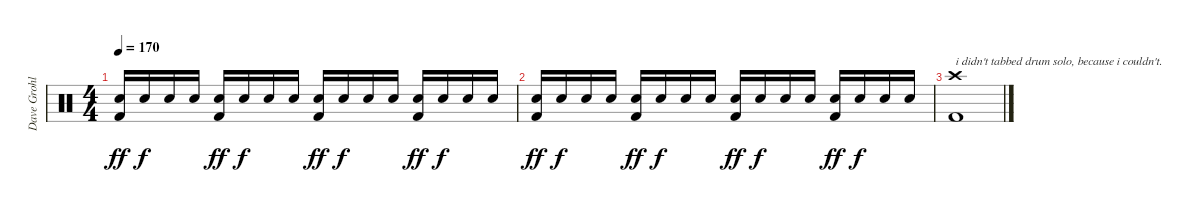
\track ("Dave Grohl" "Dave Grohl") {instrument percussion}
\staff {score}
\articulation defaults
\ts (4 4)
\tempo 170
\clef neutral
\ks c
("Electric Snare (hit)" "Kick (hit) 2").16{dy ff} "Electric Snare (hit)".16{dy f} "Electric Snare (hit)".16 "Electric Snare (hit)".16 ("Electric Snare (hit)" "Kick (hit) 2").16{dy ff} "Electric Snare (hit)".16{dy f} "Electric Snare (hit)".16 "Electric Snare (hit)".16 ("Electric Snare (hit)" "Kick (hit) 2").16{dy ff} "Electric Snare (hit)".16{dy f} "Electric Snare (hit)".16 "Electric Snare (hit)".16 ("Electric Snare (hit)" "Kick (hit) 2").16{dy ff} "Electric Snare (hit)".16{dy f} "Electric Snare (hit)".16 "Electric Snare (hit)".16 |
("Electric Snare (hit)" "Kick (hit) 2").16{dy ff} "Electric Snare (hit)".16{dy f} "Electric Snare (hit)".16 "Electric Snare (hit)".16 ("Electric Snare (hit)" "Kick (hit) 2").16{dy ff} "Electric Snare (hit)".16{dy f} "Electric Snare (hit)".16 "Electric Snare (hit)".16 ("Electric Snare (hit)" "Kick (hit) 2").16{dy ff} "Electric Snare (hit)".16{dy f} "Electric Snare (hit)".16 "Electric Snare (hit)".16 ("Electric Snare (hit)" "Kick (hit) 2").16{dy ff} "Electric Snare (hit)".16{dy f} "Electric Snare (hit)".16 "Electric Snare (hit)".16 |
("Crash high (hit)" "Kick (hit) 2").1{txt "i didn't tabbed drum solo, because i couldn't."}
